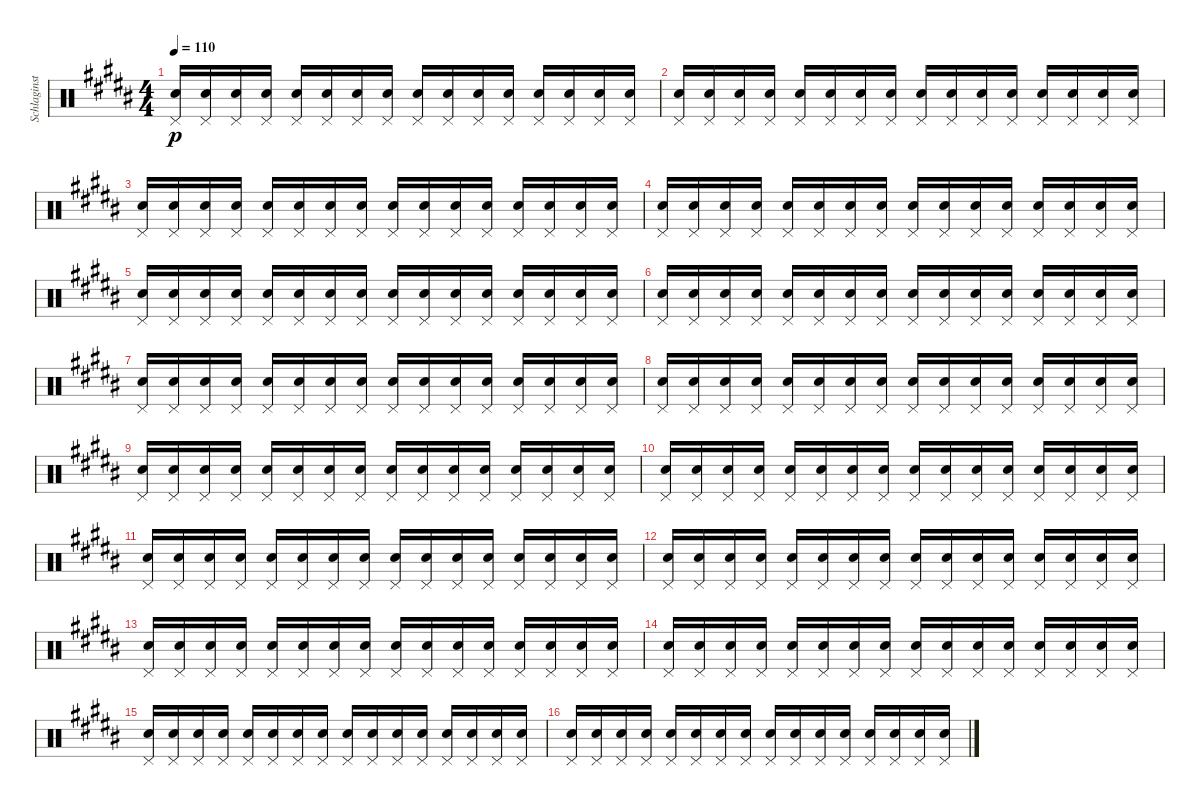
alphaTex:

\track ("Schlaginstrumente - Auswahl" "Schlaginst") {instrument percussion}
\staff {score}
\articulation defaults
\ts (4 4)
\tempo 110
\clef neutral
\ks b
("Pedal Hi-Hat (hit)" "Snare (hit) 2").16{dy p} ("Pedal Hi-Hat (hit)" "Snare (hit) 2").16 ("Pedal Hi-Hat (hit)" "Snare (hit) 2").16 ("Pedal Hi-Hat (hit)" "Snare (hit) 2").16 ("Pedal Hi-Hat (hit)" "Snare (hit) 2").16 ("Pedal Hi-Hat (hit)" "Snare (hit) 2").16 ("Pedal Hi-Hat (hit)" "Snare (hit) 2").16 ("Pedal Hi-Hat (hit)" "Snare (hit) 2").16 ("Pedal Hi-Hat (hit)" "Snare (hit) 2").16 ("Pedal Hi-Hat (hit)" "Snare (hit) 2").16 ("Pedal Hi-Hat (hit)" "Snare (hit) 2").16 ("Pedal Hi-Hat (hit)" "Snare (hit) 2").16 ("Pedal Hi-Hat (hit)" "Snare (hit) 2").16 ("Pedal Hi-Hat (hit)" "Snare (hit) 2").16 ("Pedal Hi-Hat (hit)" "Snare (hit) 2").16 ("Pedal Hi-Hat (hit)" "Snare (hit) 2").16 |
("Pedal Hi-Hat (hit)" "Snare (hit) 2").16 ("Pedal Hi-Hat (hit)" "Snare (hit) 2").16 ("Pedal Hi-Hat (hit)" "Snare (hit) 2").16 ("Pedal Hi-Hat (hit)" "Snare (hit) 2").16 ("Pedal Hi-Hat (hit)" "Snare (hit) 2").16 ("Pedal Hi-Hat (hit)" "Snare (hit) 2").16 ("Pedal Hi-Hat (hit)" "Snare (hit) 2").16 ("Pedal Hi-Hat (hit)" "Snare (hit) 2").16 ("Pedal Hi-Hat (hit)" "Snare (hit) 2").16 ("Pedal Hi-Hat (hit)" "Snare (hit) 2").16 ("Pedal Hi-Hat (hit)" "Snare (hit) 2").16 ("Pedal Hi-Hat (hit)" "Snare (hit) 2").16 ("Pedal Hi-Hat (hit)" "Snare (hit) 2").16 ("Pedal Hi-Hat (hit)" "Snare (hit) 2").16 ("Pedal Hi-Hat (hit)" "Snare (hit) 2").16 ("Pedal Hi-Hat (hit)" "Snare (hit) 2").16 |
("Pedal Hi-Hat (hit)" "Snare (hit) 2").16 ("Pedal Hi-Hat (hit)" "Snare (hit) 2").16 ("Pedal Hi-Hat (hit)" "Snare (hit) 2").16 ("Pedal Hi-Hat (hit)" "Snare (hit) 2").16 ("Pedal Hi-Hat (hit)" "Snare (hit) 2").16 ("Pedal Hi-Hat (hit)" "Snare (hit) 2").16 ("Pedal Hi-Hat (hit)" "Snare (hit) 2").16 ("Pedal Hi-Hat (hit)" "Snare (hit) 2").16 ("Pedal Hi-Hat (hit)" "Snare (hit) 2").16 ("Pedal Hi-Hat (hit)" "Snare (hit) 2").16 ("Pedal Hi-Hat (hit)" "Snare (hit) 2").16 ("Pedal Hi-Hat (hit)" "Snare (hit) 2").16 ("Pedal Hi-Hat (hit)" "Snare (hit) 2").16 ("Pedal Hi-Hat (hit)" "Snare (hit) 2").16 ("Pedal Hi-Hat (hit)" "Snare (hit) 2").16 ("Pedal Hi-Hat (hit)" "Snare (hit) 2").16 |
("Pedal Hi-Hat (hit)" "Snare (hit) 2").16 ("Pedal Hi-Hat (hit)" "Snare (hit) 2").16 ("Pedal Hi-Hat (hit)" "Snare (hit) 2").16 ("Pedal Hi-Hat (hit)" "Snare (hit) 2").16 ("Pedal Hi-Hat (hit)" "Snare (hit) 2").16 ("Pedal Hi-Hat (hit)" "Snare (hit) 2").16 ("Pedal Hi-Hat (hit)" "Snare (hit) 2").16 ("Pedal Hi-Hat (hit)" "Snare (hit) 2").16 ("Pedal Hi-Hat (hit)" "Snare (hit) 2").16 ("Pedal Hi-Hat (hit)" "Snare (hit) 2").16 ("Pedal Hi-Hat (hit)" "Snare (hit) 2").16 ("Pedal Hi-Hat (hit)" "Snare (hit) 2").16 ("Pedal Hi-Hat (hit)" "Snare (hit) 2").16 ("Pedal Hi-Hat (hit)" "Snare (hit) 2").16 ("Pedal Hi-Hat (hit)" "Snare (hit) 2").16 ("Pedal Hi-Hat (hit)" "Snare (hit) 2").16 |
("Pedal Hi-Hat (hit)" "Snare (hit) 2").16 ("Pedal Hi-Hat (hit)" "Snare (hit) 2").16 ("Pedal Hi-Hat (hit)" "Snare (hit) 2").16 ("Pedal Hi-Hat (hit)" "Snare (hit) 2").16 ("Pedal Hi-Hat (hit)" "Snare (hit) 2").16 ("Pedal Hi-Hat (hit)" "Snare (hit) 2").16 ("Pedal Hi-Hat (hit)" "Snare (hit) 2").16 ("Pedal Hi-Hat (hit)" "Snare (hit) 2").16 ("Pedal Hi-Hat (hit)" "Snare (hit) 2").16 ("Pedal Hi-Hat (hit)" "Snare (hit) 2").16 ("Pedal Hi-Hat (hit)" "Snare (hit) 2").16 ("Pedal Hi-Hat (hit)" "Snare (hit) 2").16 ("Pedal Hi-Hat (hit)" "Snare (hit) 2").16 ("Pedal Hi-Hat (hit)" "Snare (hit) 2").16 ("Pedal Hi-Hat (hit)" "Snare (hit) 2").16 ("Pedal Hi-Hat (hit)" "Snare (hit) 2").16 |
("Pedal Hi-Hat (hit)" "Snare (hit) 2").16 ("Pedal Hi-Hat (hit)" "Snare (hit) 2").16 ("Pedal Hi-Hat (hit)" "Snare (hit) 2").16 ("Pedal Hi-Hat (hit)" "Snare (hit) 2").16 ("Pedal Hi-Hat (hit)" "Snare (hit) 2").16 ("Pedal Hi-Hat (hit)" "Snare (hit) 2").16 ("Pedal Hi-Hat (hit)" "Snare (hit) 2").16 ("Pedal Hi-Hat (hit)" "Snare (hit) 2").16 ("Pedal Hi-Hat (hit)" "Snare (hit) 2").16 ("Pedal Hi-Hat (hit)" "Snare (hit) 2").16 ("Pedal Hi-Hat (hit)" "Snare (hit) 2").16 ("Pedal Hi-Hat (hit)" "Snare (hit) 2").16 ("Pedal Hi-Hat (hit)" "Snare (hit) 2").16 ("Pedal Hi-Hat (hit)" "Snare (hit) 2").16 ("Pedal Hi-Hat (hit)" "Snare (hit) 2").16 ("Pedal Hi-Hat (hit)" "Snare (hit) 2").16 |
("Pedal Hi-Hat (hit)" "Snare (hit) 2").16 ("Pedal Hi-Hat (hit)" "Snare (hit) 2").16 ("Pedal Hi-Hat (hit)" "Snare (hit) 2").16 ("Pedal Hi-Hat (hit)" "Snare (hit) 2").16 ("Pedal Hi-Hat (hit)" "Snare (hit) 2").16 ("Pedal Hi-Hat (hit)" "Snare (hit) 2").16 ("Pedal Hi-Hat (hit)" "Snare (hit) 2").16 ("Pedal Hi-Hat (hit)" "Snare (hit) 2").16 ("Pedal Hi-Hat (hit)" "Snare (hit) 2").16 ("Pedal Hi-Hat (hit)" "Snare (hit) 2").16 ("Pedal Hi-Hat (hit)" "Snare (hit) 2").16 ("Pedal Hi-Hat (hit)" "Snare (hit) 2").16 ("Pedal Hi-Hat (hit)" "Snare (hit) 2").16 ("Pedal Hi-Hat (hit)" "Snare (hit) 2").16 ("Pedal Hi-Hat (hit)" "Snare (hit) 2").16 ("Pedal Hi-Hat (hit)" "Snare (hit) 2").16 |
("Pedal Hi-Hat (hit)" "Snare (hit) 2").16 ("Pedal Hi-Hat (hit)" "Snare (hit) 2").16 ("Pedal Hi-Hat (hit)" "Snare (hit) 2").16 ("Pedal Hi-Hat (hit)" "Snare (hit) 2").16 ("Pedal Hi-Hat (hit)" "Snare (hit) 2").16 ("Pedal Hi-Hat (hit)" "Snare (hit) 2").16 ("Pedal Hi-Hat (hit)" "Snare (hit) 2").16 ("Pedal Hi-Hat (hit)" "Snare (hit) 2").16 ("Pedal Hi-Hat (hit)" "Snare (hit) 2").16 ("Pedal Hi-Hat (hit)" "Snare (hit) 2").16 ("Pedal Hi-Hat (hit)" "Snare (hit) 2").16 ("Pedal Hi-Hat (hit)" "Snare (hit) 2").16 ("Pedal Hi-Hat (hit)" "Snare (hit) 2").16 ("Pedal Hi-Hat (hit)" "Snare (hit) 2").16 ("Pedal Hi-Hat (hit)" "Snare (hit) 2").16 ("Pedal Hi-Hat (hit)" "Snare (hit) 2").16 |
("Pedal Hi-Hat (hit)" "Snare (hit) 2").16 ("Pedal Hi-Hat (hit)" "Snare (hit) 2").16 ("Pedal Hi-Hat (hit)" "Snare (hit) 2").16 ("Pedal Hi-Hat (hit)" "Snare (hit) 2").16 ("Pedal Hi-Hat (hit)" "Snare (hit) 2").16 ("Pedal Hi-Hat (hit)" "Snare (hit) 2").16 ("Pedal Hi-Hat (hit)" "Snare (hit) 2").16 ("Pedal Hi-Hat (hit)" "Snare (hit) 2").16 ("Pedal Hi-Hat (hit)" "Snare (hit) 2").16 ("Pedal Hi-Hat (hit)" "Snare (hit) 2").16 ("Pedal Hi-Hat (hit)" "Snare (hit) 2").16 ("Pedal Hi-Hat (hit)" "Snare (hit) 2").16 ("Pedal Hi-Hat (hit)" "Snare (hit) 2").16 ("Pedal Hi-Hat (hit)" "Snare (hit) 2").16 ("Pedal Hi-Hat (hit)" "Snare (hit) 2").16 ("Pedal Hi-Hat (hit)" "Snare (hit) 2").16 |
("Pedal Hi-Hat (hit)" "Snare (hit) 2").16 ("Pedal Hi-Hat (hit)" "Snare (hit) 2").16 ("Pedal Hi-Hat (hit)" "Snare (hit) 2").16 ("Pedal Hi-Hat (hit)" "Snare (hit) 2").16 ("Pedal Hi-Hat (hit)" "Snare (hit) 2").16 ("Pedal Hi-Hat (hit)" "Snare (hit) 2").16 ("Pedal Hi-Hat (hit)" "Snare (hit) 2").16 ("Pedal Hi-Hat (hit)" "Snare (hit) 2").16 ("Pedal Hi-Hat (hit)" "Snare (hit) 2").16 ("Pedal Hi-Hat (hit)" "Snare (hit) 2").16 ("Pedal Hi-Hat (hit)" "Snare (hit) 2").16 ("Pedal Hi-Hat (hit)" "Snare (hit) 2").16 ("Pedal Hi-Hat (hit)" "Snare (hit) 2").16 ("Pedal Hi-Hat (hit)" "Snare (hit) 2").16 ("Pedal Hi-Hat (hit)" "Snare (hit) 2").16 ("Pedal Hi-Hat (hit)" "Snare (hit) 2").16 |
("Pedal Hi-Hat (hit)" "Snare (hit) 2").16 ("Pedal Hi-Hat (hit)" "Snare (hit) 2").16 ("Pedal Hi-Hat (hit)" "Snare (hit) 2").16 ("Pedal Hi-Hat (hit)" "Snare (hit) 2").16 ("Pedal Hi-Hat (hit)" "Snare (hit) 2").16 ("Pedal Hi-Hat (hit)" "Snare (hit) 2").16 ("Pedal Hi-Hat (hit)" "Snare (hit) 2").16 ("Pedal Hi-Hat (hit)" "Snare (hit) 2").16 ("Pedal Hi-Hat (hit)" "Snare (hit) 2").16 ("Pedal Hi-Hat (hit)" "Snare (hit) 2").16 ("Pedal Hi-Hat (hit)" "Snare (hit) 2").16 ("Pedal Hi-Hat (hit)" "Snare (hit) 2").16 ("Pedal Hi-Hat (hit)" "Snare (hit) 2").16 ("Pedal Hi-Hat (hit)" "Snare (hit) 2").16 ("Pedal Hi-Hat (hit)" "Snare (hit) 2").16 ("Pedal Hi-Hat (hit)" "Snare (hit) 2").16 |
("Pedal Hi-Hat (hit)" "Snare (hit) 2").16 ("Pedal Hi-Hat (hit)" "Snare (hit) 2").16 ("Pedal Hi-Hat (hit)" "Snare (hit) 2").16 ("Pedal Hi-Hat (hit)" "Snare (hit) 2").16 ("Pedal Hi-Hat (hit)" "Snare (hit) 2").16 ("Pedal Hi-Hat (hit)" "Snare (hit) 2").16 ("Pedal Hi-Hat (hit)" "Snare (hit) 2").16 ("Pedal Hi-Hat (hit)" "Snare (hit) 2").16 ("Pedal Hi-Hat (hit)" "Snare (hit) 2").16 ("Pedal Hi-Hat (hit)" "Snare (hit) 2").16 ("Pedal Hi-Hat (hit)" "Snare (hit) 2").16 ("Pedal Hi-Hat (hit)" "Snare (hit) 2").16 ("Pedal Hi-Hat (hit)" "Snare (hit) 2").16 ("Pedal Hi-Hat (hit)" "Snare (hit) 2").16 ("Pedal Hi-Hat (hit)" "Snare (hit) 2").16 ("Pedal Hi-Hat (hit)" "Snare (hit) 2").16 |
("Pedal Hi-Hat (hit)" "Snare (hit) 2").16 ("Pedal Hi-Hat (hit)" "Snare (hit) 2").16 ("Pedal Hi-Hat (hit)" "Snare (hit) 2").16 ("Pedal Hi-Hat (hit)" "Snare (hit) 2").16 ("Pedal Hi-Hat (hit)" "Snare (hit) 2").16 ("Pedal Hi-Hat (hit)" "Snare (hit) 2").16 ("Pedal Hi-Hat (hit)" "Snare (hit) 2").16 ("Pedal Hi-Hat (hit)" "Snare (hit) 2").16 ("Pedal Hi-Hat (hit)" "Snare (hit) 2").16 ("Pedal Hi-Hat (hit)" "Snare (hit) 2").16 ("Pedal Hi-Hat (hit)" "Snare (hit) 2").16 ("Pedal Hi-Hat (hit)" "Snare (hit) 2").16 ("Pedal Hi-Hat (hit)" "Snare (hit) 2").16 ("Pedal Hi-Hat (hit)" "Snare (hit) 2").16 ("Pedal Hi-Hat (hit)" "Snare (hit) 2").16 ("Pedal Hi-Hat (hit)" "Snare (hit) 2").16 |
("Pedal Hi-Hat (hit)" "Snare (hit) 2").16 ("Pedal Hi-Hat (hit)" "Snare (hit) 2").16 ("Pedal Hi-Hat (hit)" "Snare (hit) 2").16 ("Pedal Hi-Hat (hit)" "Snare (hit) 2").16 ("Pedal Hi-Hat (hit)" "Snare (hit) 2").16 ("Pedal Hi-Hat (hit)" "Snare (hit) 2").16 ("Pedal Hi-Hat (hit)" "Snare (hit) 2").16 ("Pedal Hi-Hat (hit)" "Snare (hit) 2").16 ("Pedal Hi-Hat (hit)" "Snare (hit) 2").16 ("Pedal Hi-Hat (hit)" "Snare (hit) 2").16 ("Pedal Hi-Hat (hit)" "Snare (hit) 2").16 ("Pedal Hi-Hat (hit)" "Snare (hit) 2").16 ("Pedal Hi-Hat (hit)" "Snare (hit) 2").16 ("Pedal Hi-Hat (hit)" "Snare (hit) 2").16 ("Pedal Hi-Hat (hit)" "Snare (hit) 2").16 ("Pedal Hi-Hat (hit)" "Snare (hit) 2").16 |
("Pedal Hi-Hat (hit)" "Snare (hit) 2").16 ("Pedal Hi-Hat (hit)" "Snare (hit) 2").16 ("Pedal Hi-Hat (hit)" "Snare (hit) 2").16 ("Pedal Hi-Hat (hit)" "Snare (hit) 2").16 ("Pedal Hi-Hat (hit)" "Snare (hit) 2").16 ("Pedal Hi-Hat (hit)" "Snare (hit) 2").16 ("Pedal Hi-Hat (hit)" "Snare (hit) 2").16 ("Pedal Hi-Hat (hit)" "Snare (hit) 2").16 ("Pedal Hi-Hat (hit)" "Snare (hit) 2").16 ("Pedal Hi-Hat (hit)" "Snare (hit) 2").16 ("Pedal Hi-Hat (hit)" "Snare (hit) 2").16 ("Pedal Hi-Hat (hit)" "Snare (hit) 2").16 ("Pedal Hi-Hat (hit)" "Snare (hit) 2").16 ("Pedal Hi-Hat (hit)" "Snare (hit) 2").16 ("Pedal Hi-Hat (hit)" "Snare (hit) 2").16 ("Pedal Hi-Hat (hit)" "Snare (hit) 2").16 |
("Pedal Hi-Hat (hit)" "Snare (hit) 2").16 ("Pedal Hi-Hat (hit)" "Snare (hit) 2").16 ("Pedal Hi-Hat (hit)" "Snare (hit) 2").16 ("Pedal Hi-Hat (hit)" "Snare (hit) 2").16 ("Pedal Hi-Hat (hit)" "Snare (hit) 2").16 ("Pedal Hi-Hat (hit)" "Snare (hit) 2").16 ("Pedal Hi-Hat (hit)" "Snare (hit) 2").16 ("Pedal Hi-Hat (hit)" "Snare (hit) 2").16 ("Pedal Hi-Hat (hit)" "Snare (hit) 2").16 ("Pedal Hi-Hat (hit)" "Snare (hit) 2").16 ("Pedal Hi-Hat (hit)" "Snare (hit) 2").16 ("Pedal Hi-Hat (hit)" "Snare (hit) 2").16 ("Pedal Hi-Hat (hit)" "Snare (hit) 2").16 ("Pedal Hi-Hat (hit)" "Snare (hit) 2").16 ("Pedal Hi-Hat (hit)" "Snare (hit) 2").16 ("Pedal Hi-Hat (hit)" "Snare (hit) 2").16
